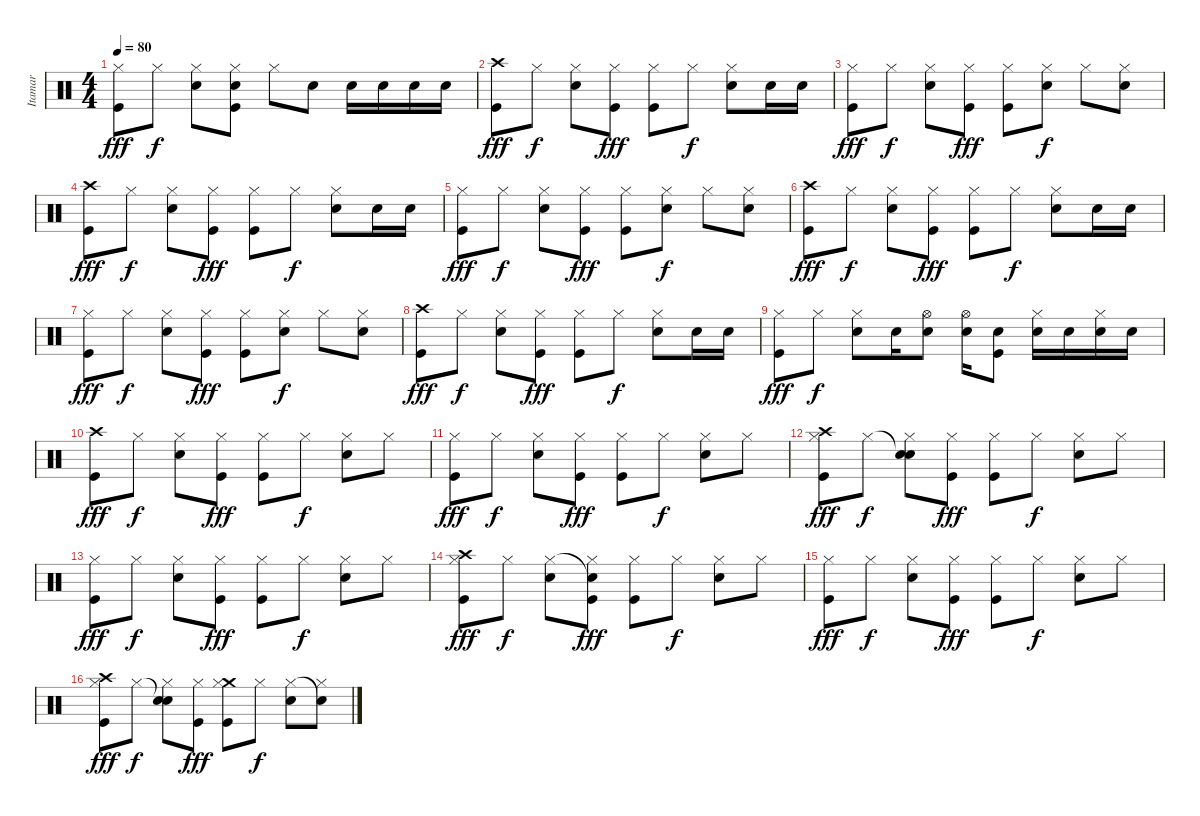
\track ("Itamar" "Itamar") {instrument percussion}
\staff {score}
\articulation defaults
\ts (4 4)
\tempo 80
\clef neutral
\ks c
("Hi-Hat (closed)" "Kick (hit)").8{dy fff} "Hi-Hat (closed)".8{dy f} ("Hi-Hat (closed)" "Electric Snare (hit)").8 ("Electric Snare (hit)" "Hi-Hat (closed)" "Kick (hit)").8 "Hi-Hat (closed)".8 "Electric Snare (hit)".8 "Electric Snare (hit)".16 "Electric Snare (hit)".16 "Electric Snare (hit)".16 "Electric Snare (hit)".16 |
("Crash high (hit)" "Kick (hit)").8{dy fff} "Hi-Hat (closed)".8{dy f} ("Hi-Hat (closed)" "Electric Snare (hit)").8 ("Hi-Hat (closed)" "Kick (hit)").8{dy fff} ("Hi-Hat (closed)" "Kick (hit)").8 "Hi-Hat (closed)".8{dy f} ("Hi-Hat (closed)" "Electric Snare (hit)").8 "Electric Snare (hit)".16 "Electric Snare (hit)".16 |
("Hi-Hat (closed)" "Kick (hit)").8{dy fff} "Hi-Hat (closed)".8{dy f} ("Hi-Hat (closed)" "Electric Snare (hit)").8 ("Hi-Hat (closed)" "Kick (hit)").8{dy fff} ("Hi-Hat (closed)" "Kick (hit)").8 ("Hi-Hat (closed)" "Electric Snare (hit)").8{dy f} "Hi-Hat (closed)".8 ("Hi-Hat (closed)" "Electric Snare (hit)").8 |
("Crash high (hit)" "Kick (hit)").8{dy fff} "Hi-Hat (closed)".8{dy f} ("Hi-Hat (closed)" "Electric Snare (hit)").8 ("Hi-Hat (closed)" "Kick (hit)").8{dy fff} ("Hi-Hat (closed)" "Kick (hit)").8 "Hi-Hat (closed)".8{dy f} ("Hi-Hat (closed)" "Electric Snare (hit)").8 "Electric Snare (hit)".16 "Electric Snare (hit)".16 |
("Hi-Hat (closed)" "Kick (hit)").8{dy fff} "Hi-Hat (closed)".8{dy f} ("Hi-Hat (closed)" "Electric Snare (hit)").8 ("Hi-Hat (closed)" "Kick (hit)").8{dy fff} ("Hi-Hat (closed)" "Kick (hit)").8 ("Hi-Hat (closed)" "Electric Snare (hit)").8{dy f} "Hi-Hat (closed)".8 ("Hi-Hat (closed)" "Electric Snare (hit)").8 |
("Crash high (hit)" "Kick (hit)").8{dy fff} "Hi-Hat (closed)".8{dy f} ("Hi-Hat (closed)" "Electric Snare (hit)").8 ("Hi-Hat (closed)" "Kick (hit)").8{dy fff} ("Hi-Hat (closed)" "Kick (hit)").8 "Hi-Hat (closed)".8{dy f} ("Hi-Hat (closed)" "Electric Snare (hit)").8 "Electric Snare (hit)".16 "Electric Snare (hit)".16 |
("Hi-Hat (closed)" "Kick (hit)").8{dy fff} "Hi-Hat (closed)".8{dy f} ("Hi-Hat (closed)" "Electric Snare (hit)").8 ("Hi-Hat (closed)" "Kick (hit)").8{dy fff} ("Hi-Hat (closed)" "Kick (hit)").8 ("Hi-Hat (closed)" "Electric Snare (hit)").8{dy f} "Hi-Hat (closed)".8 ("Hi-Hat (closed)" "Electric Snare (hit)").8 |
("Crash high (hit)" "Kick (hit)").8{dy fff} "Hi-Hat (closed)".8{dy f} ("Hi-Hat (closed)" "Electric Snare (hit)").8 ("Hi-Hat (closed)" "Kick (hit)").8{dy fff} ("Hi-Hat (closed)" "Kick (hit)").8 "Hi-Hat (closed)".8{dy f} ("Hi-Hat (closed)" "Electric Snare (hit)").8 "Electric Snare (hit)".16 "Electric Snare (hit)".16 |
("Hi-Hat (closed)" "Kick (hit)").8{dy fff} "Hi-Hat (closed)".8{dy f} ("Hi-Hat (closed)" "Electric Snare (hit)").8 "Electric Snare (hit)".16 ("Electric Snare (hit)" "Hi-Hat (open)").8 ("Electric Snare (hit)" "Hi-Hat (open)").16 ("Electric Snare (hit)" "Kick (hit)").8 ("Electric Snare (hit)" "Hi-Hat (closed)").16 "Electric Snare (hit)".16 ("Electric Snare (hit)" "Hi-Hat (closed)").16 "Electric Snare (hit)".16 |
("Crash high (hit)" "Kick (hit)").8{dy fff} "Hi-Hat (closed)".8{dy f} ("Hi-Hat (closed)" "Electric Snare (hit)").8 ("Hi-Hat (closed)" "Kick (hit)").8{dy fff} ("Hi-Hat (closed)" "Kick (hit)").8 "Hi-Hat (closed)".8{dy f} ("Hi-Hat (closed)" "Electric Snare (hit)").8 "Hi-Hat (closed)".8 |
("Hi-Hat (closed)" "Kick (hit)").8{dy fff} "Hi-Hat (closed)".8{dy f} ("Hi-Hat (closed)" "Electric Snare (hit)").8 ("Hi-Hat (closed)" "Kick (hit)").8{dy fff} ("Hi-Hat (closed)" "Kick (hit)").8 "Hi-Hat (closed)".8{dy f} ("Hi-Hat (closed)" "Electric Snare (hit)").8 "Hi-Hat (closed)".8 |
("Crash high (hit)" "Hi-Hat (closed)" "Kick (hit)").8{dy fff} "Hi-Hat (closed)".8{dy f} ("Snare (hit)"{t} "Hi-Hat (closed)" "Electric Snare (hit)").8 ("Hi-Hat (closed)" "Kick (hit)").8{dy fff} ("Hi-Hat (closed)" "Kick (hit)").8 "Hi-Hat (closed)".8{dy f} ("Hi-Hat (closed)" "Electric Snare (hit)").8 "Hi-Hat (closed)".8 |
("Hi-Hat (closed)" "Kick (hit)").8{dy fff} "Hi-Hat (closed)".8{dy f} ("Hi-Hat (closed)" "Electric Snare (hit)").8 ("Hi-Hat (closed)" "Kick (hit)").8{dy fff} ("Hi-Hat (closed)" "Kick (hit)").8 "Hi-Hat (closed)".8{dy f} ("Hi-Hat (closed)" "Electric Snare (hit)").8 "Hi-Hat (closed)".8 |
("Crash high (hit)" "Hi-Hat (closed)" "Kick (hit)").8{dy fff} "Hi-Hat (closed)".8{dy f} ("Hi-Hat (closed)" "Electric Snare (hit)").8 ("Snare (hit)"{t} "Hi-Hat (closed)" "Kick (hit)").8{dy fff} ("Hi-Hat (closed)" "Kick (hit)").8 "Hi-Hat (closed)".8{dy f} ("Hi-Hat (closed)" "Electric Snare (hit)").8 "Hi-Hat (closed)".8 |
("Hi-Hat (closed)" "Kick (hit)").8{dy fff} "Hi-Hat (closed)".8{dy f} ("Hi-Hat (closed)" "Electric Snare (hit)").8 ("Hi-Hat (closed)" "Kick (hit)").8{dy fff} ("Hi-Hat (closed)" "Kick (hit)").8 "Hi-Hat (closed)".8{dy f} ("Hi-Hat (closed)" "Electric Snare (hit)").8 "Hi-Hat (closed)".8 |
("Crash high (hit)" "Hi-Hat (closed)" "Kick (hit)").8{dy fff} "Hi-Hat (closed)".8{dy f} ("Snare (hit)"{t} "Hi-Hat (closed)" "Electric Snare (hit)").8 ("Hi-Hat (closed)" "Kick (hit)").8{dy fff} ("Crash medium (hit)" "Hi-Hat (closed)" "Kick (hit)").8 "Hi-Hat (closed)".8{dy f} ("Hi-Hat (closed)" "Electric Snare (hit)").8 ("Snare (hit)"{t} "Hi-Hat (closed)").8
